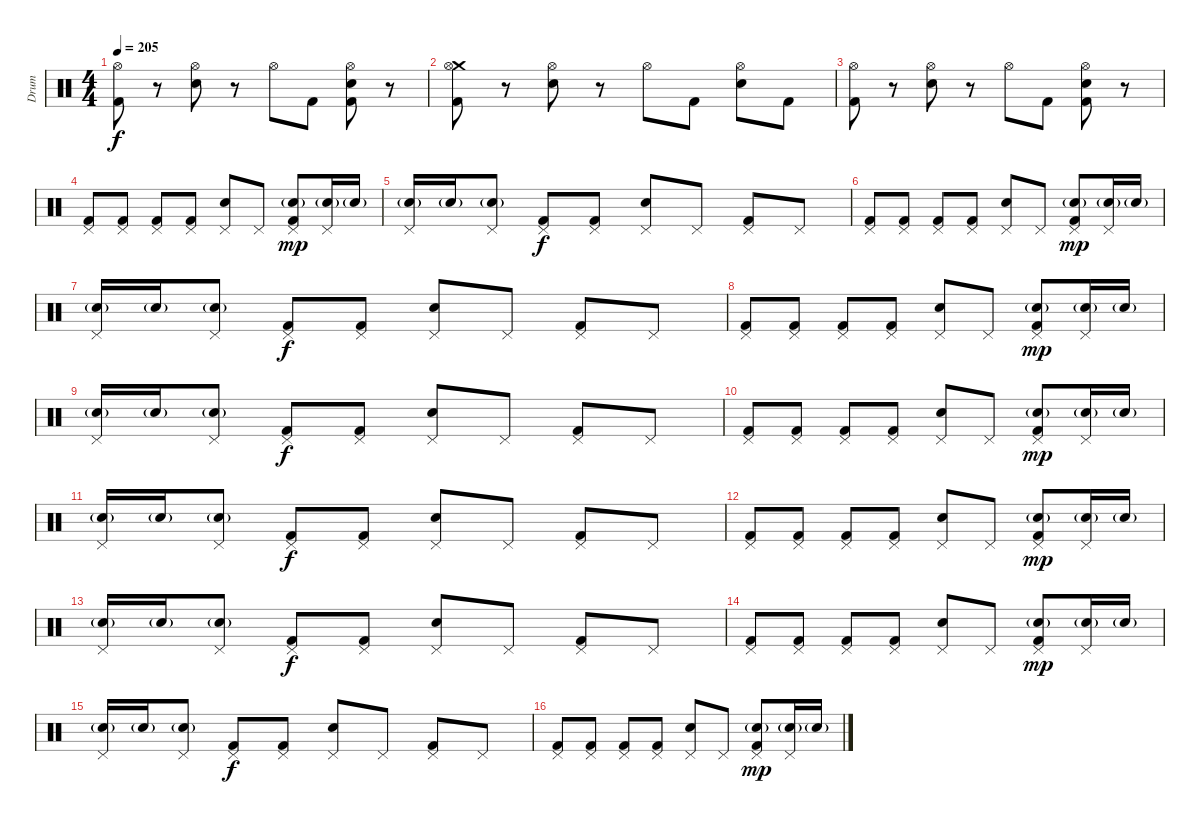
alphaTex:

\track ("Drum" "Drum") {instrument percussion}
\staff {score}
\articulation defaults
\ts (4 4)
\tempo 205
\clef neutral
\ks c
("Hi-Hat (open)" "Kick (hit) 2").8{dy f} r.8 ("Hi-Hat (open)" "Snare (hit) 2").8 r.8 "Hi-Hat (open)".8 "Kick (hit) 2".8 ("Hi-Hat (open)" "Snare (hit) 2" "Kick (hit) 2").8 r.8 |
("Crash medium (hit)" "Hi-Hat (open)" "Kick (hit) 2").8 r.8 ("Hi-Hat (open)" "Snare (hit) 2").8 r.8 "Hi-Hat (open)".8 "Kick (hit) 2".8 ("Hi-Hat (open)" "Snare (hit) 2").8 "Kick (hit) 2".8 |
("Hi-Hat (open)" "Kick (hit) 2").8 r.8 ("Hi-Hat (open)" "Snare (hit) 2").8 r.8 "Hi-Hat (open)".8 "Kick (hit) 2".8 ("Hi-Hat (open)" "Snare (hit) 2" "Kick (hit) 2").8 r.8 |
("Pedal Hi-Hat (hit)" "Kick (hit) 2").8 ("Pedal Hi-Hat (hit)" "Kick (hit) 2").8 ("Pedal Hi-Hat (hit)" "Kick (hit) 2").8 ("Pedal Hi-Hat (hit)" "Kick (hit) 2").8 ("Pedal Hi-Hat (hit)" "Snare (hit) 2").8 "Pedal Hi-Hat (hit)".8 ("Pedal Hi-Hat (hit)" "Snare (hit) 2"{g} "Kick (hit) 2").8{dy mp} ("Pedal Hi-Hat (hit)" "Snare (hit) 2"{g}).16 "Snare (hit) 2"{g}.16 |
("Pedal Hi-Hat (hit)" "Snare (hit) 2"{g}).16 "Snare (hit) 2"{g}.16 ("Pedal Hi-Hat (hit)" "Snare (hit) 2"{g}).8 ("Pedal Hi-Hat (hit)" "Kick (hit) 2").8{dy f} ("Pedal Hi-Hat (hit)" "Kick (hit) 2").8 ("Pedal Hi-Hat (hit)" "Snare (hit) 2").8 "Pedal Hi-Hat (hit)".8 ("Pedal Hi-Hat (hit)" "Kick (hit) 2").8 "Pedal Hi-Hat (hit)".8 |
("Pedal Hi-Hat (hit)" "Kick (hit) 2").8 ("Pedal Hi-Hat (hit)" "Kick (hit) 2").8 ("Pedal Hi-Hat (hit)" "Kick (hit) 2").8 ("Pedal Hi-Hat (hit)" "Kick (hit) 2").8 ("Pedal Hi-Hat (hit)" "Snare (hit) 2").8 "Pedal Hi-Hat (hit)".8 ("Pedal Hi-Hat (hit)" "Snare (hit) 2"{g} "Kick (hit) 2").8{dy mp} ("Pedal Hi-Hat (hit)" "Snare (hit) 2"{g}).16 "Snare (hit) 2"{g}.16 |
("Pedal Hi-Hat (hit)" "Snare (hit) 2"{g}).16 "Snare (hit) 2"{g}.16 ("Pedal Hi-Hat (hit)" "Snare (hit) 2"{g}).8 ("Pedal Hi-Hat (hit)" "Kick (hit) 2").8{dy f} ("Pedal Hi-Hat (hit)" "Kick (hit) 2").8 ("Pedal Hi-Hat (hit)" "Snare (hit) 2").8 "Pedal Hi-Hat (hit)".8 ("Pedal Hi-Hat (hit)" "Kick (hit) 2").8 "Pedal Hi-Hat (hit)".8 |
("Pedal Hi-Hat (hit)" "Kick (hit) 2").8 ("Pedal Hi-Hat (hit)" "Kick (hit) 2").8 ("Pedal Hi-Hat (hit)" "Kick (hit) 2").8 ("Pedal Hi-Hat (hit)" "Kick (hit) 2").8 ("Pedal Hi-Hat (hit)" "Snare (hit) 2").8 "Pedal Hi-Hat (hit)".8 ("Pedal Hi-Hat (hit)" "Snare (hit) 2"{g} "Kick (hit) 2").8{dy mp} ("Pedal Hi-Hat (hit)" "Snare (hit) 2"{g}).16 "Snare (hit) 2"{g}.16 |
("Pedal Hi-Hat (hit)" "Snare (hit) 2"{g}).16 "Snare (hit) 2"{g}.16 ("Pedal Hi-Hat (hit)" "Snare (hit) 2"{g}).8 ("Pedal Hi-Hat (hit)" "Kick (hit) 2").8{dy f} ("Pedal Hi-Hat (hit)" "Kick (hit) 2").8 ("Pedal Hi-Hat (hit)" "Snare (hit) 2").8 "Pedal Hi-Hat (hit)".8 ("Pedal Hi-Hat (hit)" "Kick (hit) 2").8 "Pedal Hi-Hat (hit)".8 |
("Pedal Hi-Hat (hit)" "Kick (hit) 2").8 ("Pedal Hi-Hat (hit)" "Kick (hit) 2").8 ("Pedal Hi-Hat (hit)" "Kick (hit) 2").8 ("Pedal Hi-Hat (hit)" "Kick (hit) 2").8 ("Pedal Hi-Hat (hit)" "Snare (hit) 2").8 "Pedal Hi-Hat (hit)".8 ("Pedal Hi-Hat (hit)" "Snare (hit) 2"{g} "Kick (hit) 2").8{dy mp} ("Pedal Hi-Hat (hit)" "Snare (hit) 2"{g}).16 "Snare (hit) 2"{g}.16 |
("Pedal Hi-Hat (hit)" "Snare (hit) 2"{g}).16 "Snare (hit) 2"{g}.16 ("Pedal Hi-Hat (hit)" "Snare (hit) 2"{g}).8 ("Pedal Hi-Hat (hit)" "Kick (hit) 2").8{dy f} ("Pedal Hi-Hat (hit)" "Kick (hit) 2").8 ("Pedal Hi-Hat (hit)" "Snare (hit) 2").8 "Pedal Hi-Hat (hit)".8 ("Pedal Hi-Hat (hit)" "Kick (hit) 2").8 "Pedal Hi-Hat (hit)".8 |
("Pedal Hi-Hat (hit)" "Kick (hit) 2").8 ("Pedal Hi-Hat (hit)" "Kick (hit) 2").8 ("Pedal Hi-Hat (hit)" "Kick (hit) 2").8 ("Pedal Hi-Hat (hit)" "Kick (hit) 2").8 ("Pedal Hi-Hat (hit)" "Snare (hit) 2").8 "Pedal Hi-Hat (hit)".8 ("Pedal Hi-Hat (hit)" "Snare (hit) 2"{g} "Kick (hit) 2").8{dy mp} ("Pedal Hi-Hat (hit)" "Snare (hit) 2"{g}).16 "Snare (hit) 2"{g}.16 |
("Pedal Hi-Hat (hit)" "Snare (hit) 2"{g}).16 "Snare (hit) 2"{g}.16 ("Pedal Hi-Hat (hit)" "Snare (hit) 2"{g}).8 ("Pedal Hi-Hat (hit)" "Kick (hit) 2").8{dy f} ("Pedal Hi-Hat (hit)" "Kick (hit) 2").8 ("Pedal Hi-Hat (hit)" "Snare (hit) 2").8 "Pedal Hi-Hat (hit)".8 ("Pedal Hi-Hat (hit)" "Kick (hit) 2").8 "Pedal Hi-Hat (hit)".8 |
("Pedal Hi-Hat (hit)" "Kick (hit) 2").8 ("Pedal Hi-Hat (hit)" "Kick (hit) 2").8 ("Pedal Hi-Hat (hit)" "Kick (hit) 2").8 ("Pedal Hi-Hat (hit)" "Kick (hit) 2").8 ("Pedal Hi-Hat (hit)" "Snare (hit) 2").8 "Pedal Hi-Hat (hit)".8 ("Pedal Hi-Hat (hit)" "Snare (hit) 2"{g} "Kick (hit) 2").8{dy mp} ("Pedal Hi-Hat (hit)" "Snare (hit) 2"{g}).16 "Snare (hit) 2"{g}.16 |
("Pedal Hi-Hat (hit)" "Snare (hit) 2"{g}).16 "Snare (hit) 2"{g}.16 ("Pedal Hi-Hat (hit)" "Snare (hit) 2"{g}).8 ("Pedal Hi-Hat (hit)" "Kick (hit) 2").8{dy f} ("Pedal Hi-Hat (hit)" "Kick (hit) 2").8 ("Pedal Hi-Hat (hit)" "Snare (hit) 2").8 "Pedal Hi-Hat (hit)".8 ("Pedal Hi-Hat (hit)" "Kick (hit) 2").8 "Pedal Hi-Hat (hit)".8 |
("Pedal Hi-Hat (hit)" "Kick (hit) 2").8 ("Pedal Hi-Hat (hit)" "Kick (hit) 2").8 ("Pedal Hi-Hat (hit)" "Kick (hit) 2").8 ("Pedal Hi-Hat (hit)" "Kick (hit) 2").8 ("Pedal Hi-Hat (hit)" "Snare (hit) 2").8 "Pedal Hi-Hat (hit)".8 ("Pedal Hi-Hat (hit)" "Snare (hit) 2"{g} "Kick (hit) 2").8{dy mp} ("Pedal Hi-Hat (hit)" "Snare (hit) 2"{g}).16 "Snare (hit) 2"{g}.16
